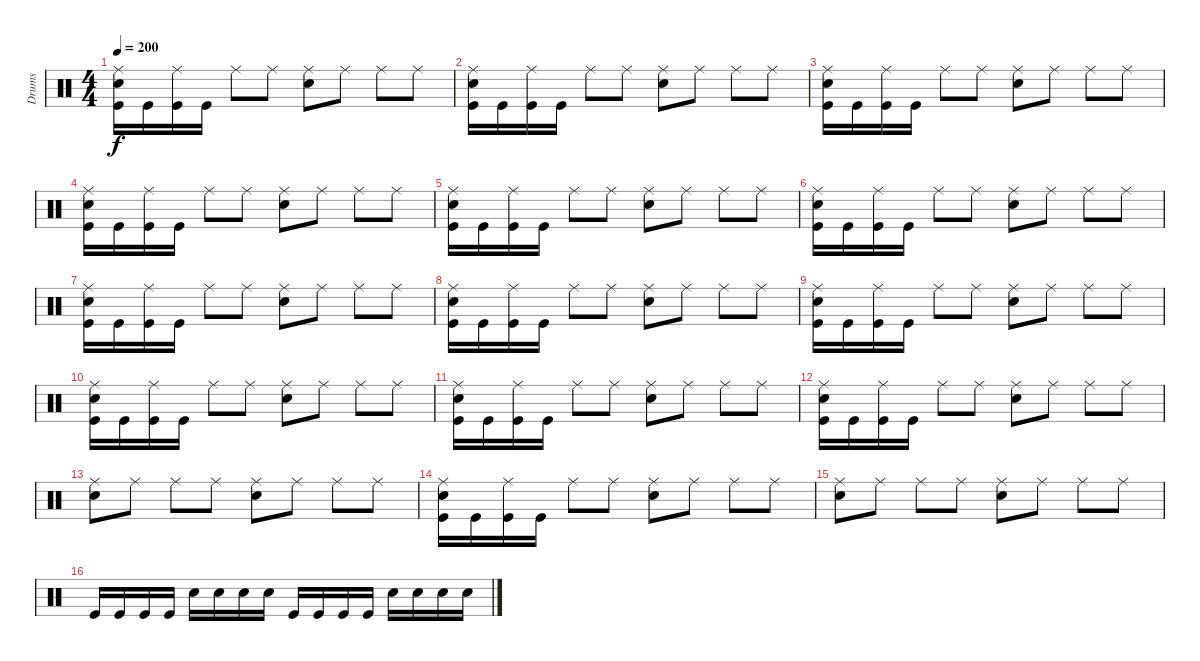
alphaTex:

\track ("Drums" "Drums") {instrument percussion}
\staff {score}
\articulation defaults
\ts (4 4)
\tempo 200
\clef neutral
\ks c
("Electric Snare (hit)" "Ride (middle)" "Kick (hit)").16{dy f} "Kick (hit)".16 ("Ride (middle)" "Kick (hit)").16 "Kick (hit)".16 "Ride (middle)".8 "Ride (middle)".8 ("Electric Snare (hit)" "Ride (middle)").8 "Ride (middle)".8 "Ride (middle)".8 "Ride (middle)".8 |
("Electric Snare (hit)" "Ride (middle)" "Kick (hit)").16 "Kick (hit)".16 ("Ride (middle)" "Kick (hit)").16 "Kick (hit)".16 "Ride (middle)".8 "Ride (middle)".8 ("Electric Snare (hit)" "Ride (middle)").8 "Ride (middle)".8 "Ride (middle)".8 "Ride (middle)".8 |
("Electric Snare (hit)" "Ride (middle)" "Kick (hit)").16 "Kick (hit)".16 ("Ride (middle)" "Kick (hit)").16 "Kick (hit)".16 "Ride (middle)".8 "Ride (middle)".8 ("Electric Snare (hit)" "Ride (middle)").8 "Ride (middle)".8 "Ride (middle)".8 "Ride (middle)".8 |
("Electric Snare (hit)" "Ride (middle)" "Kick (hit)").16 "Kick (hit)".16 ("Ride (middle)" "Kick (hit)").16 "Kick (hit)".16 "Ride (middle)".8 "Ride (middle)".8 ("Electric Snare (hit)" "Ride (middle)").8 "Ride (middle)".8 "Ride (middle)".8 "Ride (middle)".8 |
("Electric Snare (hit)" "Ride (middle)" "Kick (hit)").16 "Kick (hit)".16 ("Ride (middle)" "Kick (hit)").16 "Kick (hit)".16 "Ride (middle)".8 "Ride (middle)".8 ("Electric Snare (hit)" "Ride (middle)").8 "Ride (middle)".8 "Ride (middle)".8 "Ride (middle)".8 |
("Electric Snare (hit)" "Ride (middle)" "Kick (hit)").16 "Kick (hit)".16 ("Ride (middle)" "Kick (hit)").16 "Kick (hit)".16 "Ride (middle)".8 "Ride (middle)".8 ("Electric Snare (hit)" "Ride (middle)").8 "Ride (middle)".8 "Ride (middle)".8 "Ride (middle)".8 |
("Electric Snare (hit)" "Ride (middle)" "Kick (hit)").16 "Kick (hit)".16 ("Ride (middle)" "Kick (hit)").16 "Kick (hit)".16 "Ride (middle)".8 "Ride (middle)".8 ("Electric Snare (hit)" "Ride (middle)").8 "Ride (middle)".8 "Ride (middle)".8 "Ride (middle)".8 |
("Electric Snare (hit)" "Ride (middle)" "Kick (hit)").16 "Kick (hit)".16 ("Ride (middle)" "Kick (hit)").16 "Kick (hit)".16 "Ride (middle)".8 "Ride (middle)".8 ("Electric Snare (hit)" "Ride (middle)").8 "Ride (middle)".8 "Ride (middle)".8 "Ride (middle)".8 |
("Electric Snare (hit)" "Ride (middle)" "Kick (hit)").16 "Kick (hit)".16 ("Ride (middle)" "Kick (hit)").16 "Kick (hit)".16 "Ride (middle)".8 "Ride (middle)".8 ("Electric Snare (hit)" "Ride (middle)").8 "Ride (middle)".8 "Ride (middle)".8 "Ride (middle)".8 |
("Electric Snare (hit)" "Ride (middle)" "Kick (hit)").16 "Kick (hit)".16 ("Ride (middle)" "Kick (hit)").16 "Kick (hit)".16 "Ride (middle)".8 "Ride (middle)".8 ("Electric Snare (hit)" "Ride (middle)").8 "Ride (middle)".8 "Ride (middle)".8 "Ride (middle)".8 |
("Electric Snare (hit)" "Ride (middle)" "Kick (hit)").16 "Kick (hit)".16 ("Ride (middle)" "Kick (hit)").16 "Kick (hit)".16 "Ride (middle)".8 "Ride (middle)".8 ("Electric Snare (hit)" "Ride (middle)").8 "Ride (middle)".8 "Ride (middle)".8 "Ride (middle)".8 |
("Electric Snare (hit)" "Ride (middle)" "Kick (hit)").16 "Kick (hit)".16 ("Ride (middle)" "Kick (hit)").16 "Kick (hit)".16 "Ride (middle)".8 "Ride (middle)".8 ("Electric Snare (hit)" "Ride (middle)").8 "Ride (middle)".8 "Ride (middle)".8 "Ride (middle)".8 |
("Electric Snare (hit)" "Ride (middle)").8 "Ride (middle)".8 "Ride (middle)".8 "Ride (middle)".8 ("Electric Snare (hit)" "Ride (middle)").8 "Ride (middle)".8 "Ride (middle)".8 "Ride (middle)".8 |
("Electric Snare (hit)" "Ride (middle)" "Kick (hit)").16 "Kick (hit)".16 ("Ride (middle)" "Kick (hit)").16 "Kick (hit)".16 "Ride (middle)".8 "Ride (middle)".8 ("Electric Snare (hit)" "Ride (middle)").8 "Ride (middle)".8 "Ride (middle)".8 "Ride (middle)".8 |
("Electric Snare (hit)" "Ride (middle)").8 "Ride (middle)".8 "Ride (middle)".8 "Ride (middle)".8 ("Electric Snare (hit)" "Ride (middle)").8 "Ride (middle)".8 "Ride (middle)".8 "Ride (middle)".8 |
"Kick (hit)".16 "Kick (hit)".16 "Kick (hit)".16 "Kick (hit)".16 "Electric Snare (hit)".16 "Electric Snare (hit)".16 "Electric Snare (hit)".16 "Electric Snare (hit)".16 "Kick (hit)".16 "Kick (hit)".16 "Kick (hit)".16 "Kick (hit)".16 "Electric Snare (hit)".16 "Electric Snare (hit)".16 "Electric Snare (hit)".16 "Electric Snare (hit)".16
